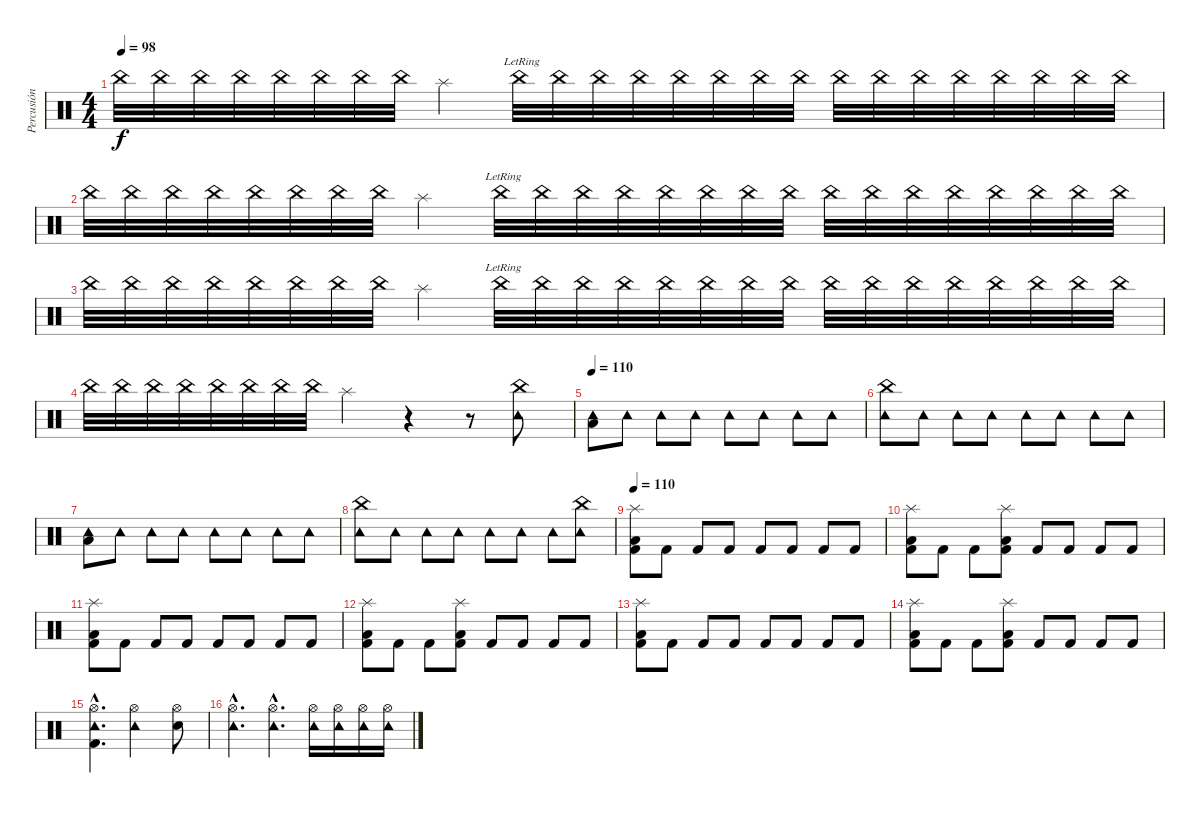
\track ("Percusión" "Percusión") {instrument percussion}
\staff {score}
\articulation defaults
\ts (4 4)
\tempo 98
\clef neutral
\ks c "China (hit)".32{dy f} "China (hit)".32 "China (hit)".32 "China (hit)".32 "China (hit)".32 "China (hit)".32 "China (hit)".32 "China (hit)".32 "Splash (hit)".4{volume 0} "China (hit)"{lr}.32{volume 16} "China (hit)".32 "China (hit)".32 "China (hit)".32 "China (hit)".32 "China (hit)".32 "China (hit)".32 "China (hit)".32 "China (hit)".32 "China (hit)".32 "China (hit)".32 "China (hit)".32 "China (hit)".32 "China (hit)".32 "China (hit)".32 "China (hit)".32
|
"China (hit)".32 "China (hit)".32 "China (hit)".32 "China (hit)".32 "China (hit)".32 "China (hit)".32 "China (hit)".32 "China (hit)".32 "Splash (hit)".4{volume 0} "China (hit)"{lr}.32{volume 16} "China (hit)".32 "China (hit)".32 "China (hit)".32 "China (hit)".32 "China (hit)".32 "China (hit)".32 "China (hit)".32 "China (hit)".32 "China (hit)".32 "China (hit)".32 "China (hit)".32 "China (hit)".32 "China (hit)".32 "China (hit)".32 "China (hit)".32 |
"China (hit)".32 "China (hit)".32 "China (hit)".32 "China (hit)".32 "China (hit)".32 "China (hit)".32 "China (hit)".32 "China (hit)".32 "Splash (hit)".4{volume 0} "China (hit)"{lr}.32{volume 16} "China (hit)".32 "China (hit)".32 "China (hit)".32 "China (hit)".32 "China (hit)".32 "China (hit)".32 "China (hit)".32 "China (hit)".32 "China (hit)".32 "China (hit)".32 "China (hit)".32 "China (hit)".32 "China (hit)".32 "China (hit)".32 "China (hit)".32 |
"China (hit)".32 "China (hit)".32 "China (hit)".32 "China (hit)".32 "China (hit)".32 "China (hit)".32 "China (hit)".32 "China (hit)".32 "Splash (hit)".4{volume 0} r.4 r.8{volume 16} ("China (hit)" "Tambourine (hit)").8 |
\tempo 110
("Tambourine (hit)" "Low Tom (hit)").8 "Tambourine (hit)".8 "Tambourine (hit)".8 "Tambourine (hit)".8 "Tambourine (hit)".8 "Tambourine (hit)".8 "Tambourine (hit)".8 "Tambourine (hit)".8 |
("Tambourine (hit)" "China (hit)").8 "Tambourine (hit)".8 "Tambourine (hit)".8 "Tambourine (hit)".8 "Tambourine (hit)".8 "Tambourine (hit)".8 "Tambourine (hit)".8 "Tambourine (hit)".8 |
("Tambourine (hit)" "Low Tom (hit)").8 "Tambourine (hit)".8 "Tambourine (hit)".8 "Tambourine (hit)".8 "Tambourine (hit)".8 "Tambourine (hit)".8 "Tambourine (hit)".8 "Tambourine (hit)".8 |
("Tambourine (hit)" "China (hit)").8 "Tambourine (hit)".8 "Tambourine (hit)".8 "Tambourine (hit)".8 "Tambourine (hit)".8 "Tambourine (hit)".8 "Tambourine (hit)".8 ("Tambourine (hit)" "China (hit)").8 |
\tempo 110
("Splash (hit)" "Kick (hit) 2" "Low Tom (hit)").8 "Kick (hit) 2".8 "Kick (hit) 2".8 "Kick (hit) 2".8 "Kick (hit) 2".8 "Kick (hit) 2".8 "Kick (hit) 2".8 "Kick (hit) 2".8 |
("Splash (hit)" "Kick (hit) 2" "Low Tom (hit)").8 "Kick (hit) 2".8 "Kick (hit) 2".8 ("Splash (hit)" "Kick (hit) 2" "Low Tom (hit)").8 "Kick (hit) 2".8 "Kick (hit) 2".8 "Kick (hit) 2".8 "Kick (hit) 2".8 |
("Splash (hit)" "Kick (hit) 2" "Low Tom (hit)").8 "Kick (hit) 2".8 "Kick (hit) 2".8 "Kick (hit) 2".8 "Kick (hit) 2".8 "Kick (hit) 2".8 "Kick (hit) 2".8 "Kick (hit) 2".8 |
("Splash (hit)" "Kick (hit) 2" "Low Tom (hit)").8 "Kick (hit) 2".8 "Kick (hit) 2".8 ("Splash (hit)" "Kick (hit) 2" "Low Tom (hit)").8 "Kick (hit) 2".8 "Kick (hit) 2".8 "Kick (hit) 2".8 "Kick (hit) 2".8 |
("Splash (hit)" "Kick (hit) 2" "Low Tom (hit)").8 "Kick (hit) 2".8 "Kick (hit) 2".8 "Kick (hit) 2".8 "Kick (hit) 2".8 "Kick (hit) 2".8 "Kick (hit) 2".8 "Kick (hit) 2".8 |
("Splash (hit)" "Kick (hit) 2" "Low Tom (hit)").8 "Kick (hit) 2".8 "Kick (hit) 2".8 ("Splash (hit)" "Kick (hit) 2" "Low Tom (hit)").8 "Kick (hit) 2".8 "Kick (hit) 2".8 "Kick (hit) 2".8 "Kick (hit) 2".8 |
("Tambourine (hit)"{hac} "Hi-Hat (open)"{hac} "Kick (hit) 2"{hac}).4{d} ("Tambourine (hit)" "Hi-Hat (open)").2 ("Electric Snare (hit)" "Hi-Hat (open)").8 |
("Tambourine (hit)"{hac} "Hi-Hat (open)"{hac}).4{d} ("Tambourine (hit)"{hac} "Hi-Hat (open)"{hac}).4{d} ("Tambourine (hit)" "Hi-Hat (open)").16 ("Tambourine (hit)" "Hi-Hat (open)").16 ("Tambourine (hit)" "Hi-Hat (open)").16 ("Tambourine (hit)" "Hi-Hat (open)").16
